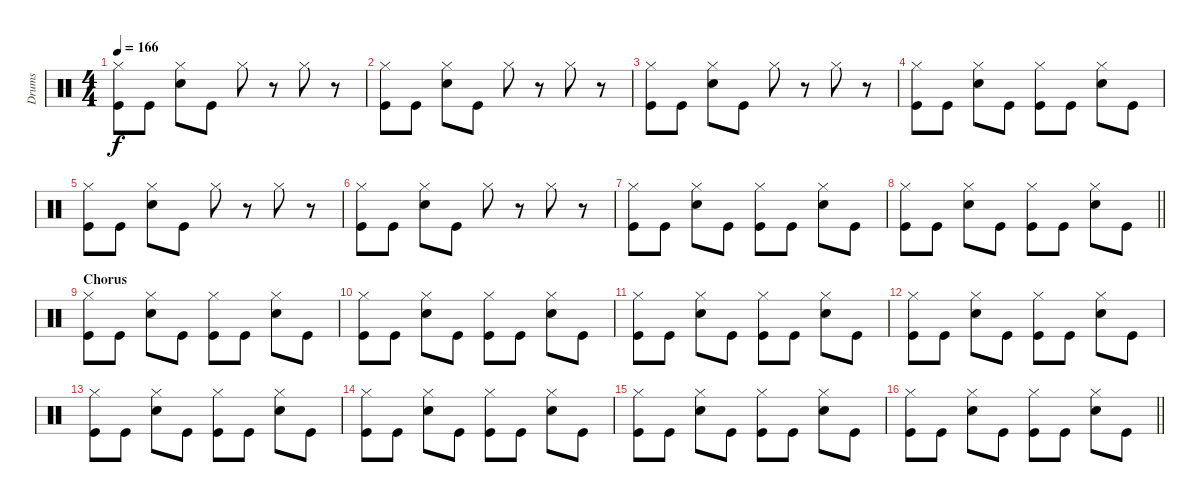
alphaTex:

\track ("Drums" "Drums") {instrument percussion}
\staff {score}
\articulation defaults
\ts (4 4)
\tempo 166
\clef neutral
\ks c
("Hi-Hat (closed)" "Kick (hit)").8{dy f} "Kick (hit)".8 ("Hi-Hat (closed)" "Electric Snare (hit)").8 "Kick (hit)".8 "Hi-Hat (closed)".8 r.8 "Hi-Hat (closed)".8 r.8 |
("Hi-Hat (closed)" "Kick (hit)").8 "Kick (hit)".8 ("Hi-Hat (closed)" "Electric Snare (hit)").8 "Kick (hit)".8 "Hi-Hat (closed)".8 r.8 "Hi-Hat (closed)".8 r.8 |
("Hi-Hat (closed)" "Kick (hit)").8 "Kick (hit)".8 ("Hi-Hat (closed)" "Electric Snare (hit)").8 "Kick (hit)".8 "Hi-Hat (closed)".8 r.8 "Hi-Hat (closed)".8 r.8 |
("Hi-Hat (closed)" "Kick (hit)").8 "Kick (hit)".8 ("Hi-Hat (closed)" "Electric Snare (hit)").8 "Kick (hit)".8 ("Hi-Hat (closed)" "Kick (hit)").8 "Kick (hit)".8 ("Hi-Hat (closed)" "Electric Snare (hit)").8 "Kick (hit)".8 |
("Hi-Hat (closed)" "Kick (hit)").8 "Kick (hit)".8 ("Hi-Hat (closed)" "Electric Snare (hit)").8 "Kick (hit)".8 "Hi-Hat (closed)".8 r.8 "Hi-Hat (closed)".8 r.8 |
("Hi-Hat (closed)" "Kick (hit)").8 "Kick (hit)".8 ("Hi-Hat (closed)" "Electric Snare (hit)").8 "Kick (hit)".8 "Hi-Hat (closed)".8 r.8 "Hi-Hat (closed)".8 r.8 |
("Hi-Hat (closed)" "Kick (hit)").8 "Kick (hit)".8 ("Hi-Hat (closed)" "Electric Snare (hit)").8 "Kick (hit)".8 ("Hi-Hat (closed)" "Kick (hit)").8 "Kick (hit)".8 ("Hi-Hat (closed)" "Electric Snare (hit)").8 "Kick (hit)".8 |
\barLineRight lightlight
("Hi-Hat (closed)" "Kick (hit)").8 "Kick (hit)".8 ("Hi-Hat (closed)" "Electric Snare (hit)").8 "Kick (hit)".8 ("Hi-Hat (closed)" "Kick (hit)").8 "Kick (hit)".8 ("Hi-Hat (closed)" "Electric Snare (hit)").8 "Kick (hit)".8 |
\section ("" "Chorus")
("Hi-Hat (closed)" "Kick (hit)").8 "Kick (hit)".8 ("Hi-Hat (closed)" "Electric Snare (hit)").8 "Kick (hit)".8 ("Hi-Hat (closed)" "Kick (hit)").8 "Kick (hit)".8 ("Hi-Hat (closed)" "Electric Snare (hit)").8 "Kick (hit)".8 |
("Hi-Hat (closed)" "Kick (hit)").8 "Kick (hit)".8 ("Hi-Hat (closed)" "Electric Snare (hit)").8 "Kick (hit)".8 ("Hi-Hat (closed)" "Kick (hit)").8 "Kick (hit)".8 ("Hi-Hat (closed)" "Electric Snare (hit)").8 "Kick (hit)".8 |
("Hi-Hat (closed)" "Kick (hit)").8 "Kick (hit)".8 ("Hi-Hat (closed)" "Electric Snare (hit)").8 "Kick (hit)".8 ("Hi-Hat (closed)" "Kick (hit)").8 "Kick (hit)".8 ("Hi-Hat (closed)" "Electric Snare (hit)").8 "Kick (hit)".8 |
("Hi-Hat (closed)" "Kick (hit)").8 "Kick (hit)".8 ("Hi-Hat (closed)" "Electric Snare (hit)").8 "Kick (hit)".8 ("Hi-Hat (closed)" "Kick (hit)").8 "Kick (hit)".8 ("Hi-Hat (closed)" "Electric Snare (hit)").8 "Kick (hit)".8 |
("Hi-Hat (closed)" "Kick (hit)").8 "Kick (hit)".8 ("Hi-Hat (closed)" "Electric Snare (hit)").8 "Kick (hit)".8 ("Hi-Hat (closed)" "Kick (hit)").8 "Kick (hit)".8 ("Hi-Hat (closed)" "Electric Snare (hit)").8 "Kick (hit)".8 |
("Hi-Hat (closed)" "Kick (hit)").8 "Kick (hit)".8 ("Hi-Hat (closed)" "Electric Snare (hit)").8 "Kick (hit)".8 ("Hi-Hat (closed)" "Kick (hit)").8 "Kick (hit)".8 ("Hi-Hat (closed)" "Electric Snare (hit)").8 "Kick (hit)".8 |
("Hi-Hat (closed)" "Kick (hit)").8 "Kick (hit)".8 ("Hi-Hat (closed)" "Electric Snare (hit)").8 "Kick (hit)".8 ("Hi-Hat (closed)" "Kick (hit)").8 "Kick (hit)".8 ("Hi-Hat (closed)" "Electric Snare (hit)").8 "Kick (hit)".8 |
\barLineRight lightlight
("Hi-Hat (closed)" "Kick (hit)").8 "Kick (hit)".8 ("Hi-Hat (closed)" "Electric Snare (hit)").8 "Kick (hit)".8 ("Hi-Hat (closed)" "Kick (hit)").8 "Kick (hit)".8 ("Hi-Hat (closed)" "Electric Snare (hit)").8 "Kick (hit)".8
